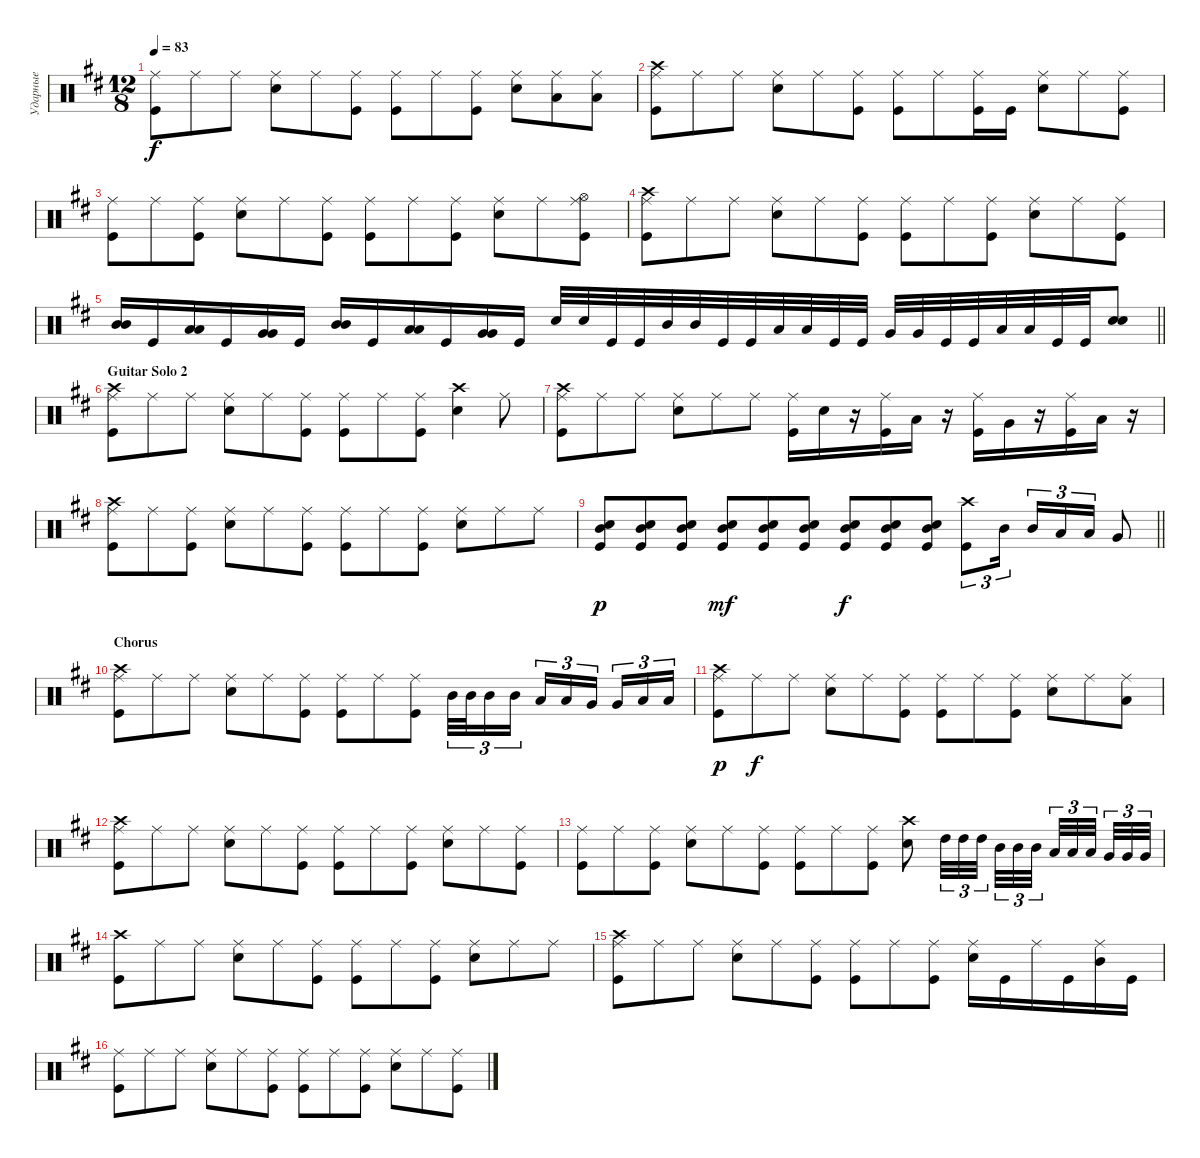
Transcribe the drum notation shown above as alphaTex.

\track ("Ударные" "Ударные") {instrument percussion}
\staff {score}
\articulation defaults
\ts (12 8)
\tempo 83
\clef neutral
\ks bminor
("Kick (hit)" "Ride (middle)").8{dy f} "Ride (middle)".8 "Ride (middle)".8 ("Ride (middle)" "Snare (hit) 2").8 "Ride (middle)".8 ("Ride (middle)" "Kick (hit)").8 ("Kick (hit)" "Ride (middle)").8 "Ride (middle)".8 ("Ride (middle)" "Kick (hit)").8 ("Ride (middle)" "Snare (hit) 2").8 ("Ride (middle)" "Low Floor Tom (hit)").8 ("Ride (middle)" "Low Floor Tom (hit)").8 |
("Kick (hit)" "Ride (middle)" "Crash high (hit)").8 "Ride (middle)".8 "Ride (middle)".8 ("Ride (middle)" "Snare (hit) 2").8 "Ride (middle)".8 ("Ride (middle)" "Kick (hit)").8 ("Kick (hit)" "Ride (middle)").8 "Ride (middle)".8 ("Ride (middle)" "Kick (hit)").16 "Kick (hit)".16 ("Ride (middle)" "Snare (hit) 2").8 "Ride (middle)".8 ("Ride (middle)" "Kick (hit)").8 |
("Kick (hit)" "Ride (middle)").8 "Ride (middle)".8 ("Ride (middle)" "Kick (hit)").8 ("Ride (middle)" "Snare (hit) 2").8 "Ride (middle)".8 ("Ride (middle)" "Kick (hit)").8 ("Kick (hit)" "Ride (middle)").8 "Ride (middle)".8 ("Ride (middle)" "Kick (hit)").8 ("Ride (middle)" "Snare (hit) 2").8 "Ride (middle)".8 ("Ride (middle)" "Kick (hit)" "Hi-Hat (open)").8 |
("Kick (hit)" "Ride (middle)" "Crash high (hit)").8 "Ride (middle)".8 "Ride (middle)".8 ("Ride (middle)" "Snare (hit) 2").8 "Ride (middle)".8 ("Ride (middle)" "Kick (hit)").8 ("Kick (hit)" "Ride (middle)").8 "Ride (middle)".8 ("Ride (middle)" "Kick (hit)").8 ("Ride (middle)" "Snare (hit) 2").8 "Ride (middle)".8 ("Ride (middle)" "Kick (hit)").8 |
\barLineRight lightlight
("Mid Tom (hit)" "Mid Tom (hit)").16{bd 240} "Kick (hit)".16 ("Low Tom (hit)" "Low Tom (hit)").16{bd 240} "Kick (hit)".16 ("Very Low Tom (hit)" "Very Low Tom (hit)").16{bu 240} "Kick (hit)".16 ("Mid Tom (hit)" "Mid Tom (hit)").16{bd 240} "Kick (hit)".16 ("Low Tom (hit)" "Low Tom (hit)").16{bd 240} "Kick (hit)".16 ("Very Low Tom (hit)" "Very Low Tom (hit)").16{bu 240} "Kick (hit)".16 "Snare (hit) 2".32 "Snare (hit) 2".32 "Kick (hit)".32 "Kick (hit)".32 "Mid Tom (hit)".32 "Mid Tom (hit)".32 "Kick (hit)".32 "Kick (hit)".32 "Low Tom (hit)".32 "Low Tom (hit)".32 "Kick (hit)".32 "Kick (hit)".32 "Very Low Tom (hit)".32 "Very Low Tom (hit)".32 "Kick (hit)".32 "Kick (hit)".32 "Low Floor Tom (hit)".32 "Low Floor Tom (hit)".32 "Kick (hit)".32 "Kick (hit)".32 ("Snare (hit) 2" "Snare (hit) 2").8{bd 240} |
\section ("" "Guitar Solo 2")
("Kick (hit)" "Ride (middle)" "Crash high (hit)").8 "Ride (middle)".8 "Ride (middle)".8 ("Ride (middle)" "Snare (hit) 2").8 "Ride (middle)".8 ("Ride (middle)" "Kick (hit)").8 ("Kick (hit)" "Ride (middle)").8 "Ride (middle)".8 ("Ride (middle)" "Kick (hit)").8 ("Crash high (hit)" "Snare (hit) 2").4 "Ride (middle)".8 |
("Kick (hit)" "Ride (middle)" "Crash high (hit)").8 "Ride (middle)".8 "Ride (middle)".8 ("Ride (middle)" "Snare (hit) 2").8 "Ride (middle)".8 "Ride (middle)".8 ("Kick (hit)" "Ride (middle)").16 "Snare (hit) 2".16 r.16 ("Kick (hit)" "Ride (middle)").16 "Low Tom (hit)".16 r.16 ("Kick (hit)" "Ride (middle)").16 "Very Low Tom (hit)".16 r.16 ("Kick (hit)" "Ride (middle)").16 "Low Floor Tom (hit)".16 r.16 |
("Kick (hit)" "Ride (middle)" "Crash high (hit)").8 "Ride (middle)".8 ("Ride (middle)" "Kick (hit)").8 ("Ride (middle)" "Snare (hit) 2").8 "Ride (middle)".8 ("Ride (middle)" "Kick (hit)").8 ("Kick (hit)" "Ride (middle)").8 "Ride (middle)".8 ("Ride (middle)" "Kick (hit)").8 ("Ride (middle)" "Snare (hit) 2").8 "Ride (middle)".8 "Ride (middle)".8 |
\barLineRight lightlight
("Kick (hit)" "Snare (hit) 2" "Mid Tom (hit)").8{bd 60 dy p} ("Kick (hit)" "Snare (hit) 2" "Mid Tom (hit)").8{bd 60} ("Kick (hit)" "Snare (hit) 2" "Mid Tom (hit)").8{bd 60} ("Kick (hit)" "Snare (hit) 2" "Mid Tom (hit)").8{bd 60 dy mf} ("Kick (hit)" "Snare (hit) 2" "Mid Tom (hit)").8{bd 60} ("Kick (hit)" "Snare (hit) 2" "Mid Tom (hit)").8{bd 60} ("Kick (hit)" "Snare (hit) 2" "Mid Tom (hit)").8{bd 60 dy f} ("Kick (hit)" "Snare (hit) 2" "Mid Tom (hit)").8{bd 60} ("Kick (hit)" "Snare (hit) 2" "Mid Tom (hit)").8{bd 60} ("Kick (hit)" "Crash high (hit)").8{tu (3 2)} "Mid Tom (hit)".16{tu (3 2) beam splitsecondary} "Mid Tom (hit)".16{tu (3 2)} "Low Tom (hit)".16{tu (3 2)} "Low Tom (hit)".16{tu (3 2)} "Very Low Tom (hit)".8 |
\section ("" "Chorus")
("Kick (hit)" "Ride (middle)" "Crash high (hit)").8 "Ride (middle)".8 "Ride (middle)".8 ("Ride (middle)" "Snare (hit) 2").8 "Ride (middle)".8 ("Ride (middle)" "Kick (hit)").8 ("Kick (hit)" "Ride (middle)").8 "Ride (middle)".8 ("Kick (hit)" "Ride (middle)").8 "Mid Tom (hit)".32{tu (3 2)} "Mid Tom (hit)".32{tu (3 2)} "Mid Tom (hit)".16{tu (3 2)} "Mid Tom (hit)".16{tu (3 2) beam splitsecondary} "Low Tom (hit)".16{tu (3 2)} "Low Tom (hit)".16{tu (3 2)} "Very Low Tom (hit)".16{tu (3 2) beam splitsecondary} "Very Low Tom (hit)".16{tu (3 2)} "Low Floor Tom (hit)".16{tu (3 2)} "Low Floor Tom (hit)".16{tu (3 2)} |
("Kick (hit)" "Ride (middle)" "Crash high (hit)").8{dy p} "Ride (middle)".8{dy f} "Ride (middle)".8 ("Ride (middle)" "Snare (hit) 2").8 "Ride (middle)".8 ("Ride (middle)" "Kick (hit)").8 ("Kick (hit)" "Ride (middle)").8 "Ride (middle)".8 ("Ride (middle)" "Kick (hit)").8 ("Ride (middle)" "Snare (hit) 2").8 "Ride (middle)".8 ("Low Tom (hit)" "Ride (middle)").8 |
("Kick (hit)" "Ride (middle)" "Crash high (hit)").8 "Ride (middle)".8 "Ride (middle)".8 ("Ride (middle)" "Snare (hit) 2").8 "Ride (middle)".8 ("Ride (middle)" "Kick (hit)").8 ("Kick (hit)" "Ride (middle)").8 "Ride (middle)".8 ("Ride (middle)" "Kick (hit)").8 ("Ride (middle)" "Snare (hit) 2").8 "Ride (middle)".8 ("Ride (middle)" "Kick (hit)").8 |
("Kick (hit)" "Ride (middle)").8 "Ride (middle)".8 ("Ride (middle)" "Kick (hit)").8 ("Ride (middle)" "Snare (hit) 2").8 "Ride (middle)".8 ("Ride (middle)" "Kick (hit)").8 ("Kick (hit)" "Ride (middle)").8 "Ride (middle)".8 ("Ride (middle)" "Kick (hit)").8 ("Crash high (hit)" "Snare (hit) 2").8 "High Tom (hit)".32{tu (3 2)} "High Tom (hit)".32{tu (3 2)} "High Tom (hit)".32{tu (3 2) beam splitsecondary} "Mid Tom (hit)".32{tu (3 2)} "Mid Tom (hit)".32{tu (3 2)} "Mid Tom (hit)".32{tu (3 2) beam splitsecondary} "Low Tom (hit)".32{tu (3 2)} "Low Tom (hit)".32{tu (3 2)} "Low Tom (hit)".32{tu (3 2) beam splitsecondary} "Very Low Tom (hit)".32{tu (3 2)} "Very Low Tom (hit)".32{tu (3 2)} "Very Low Tom (hit)".32{tu (3 2)} |
("Kick (hit)" "Crash high (hit)").8 "Ride (middle)".8 "Ride (middle)".8 ("Ride (middle)" "Snare (hit) 2").8 "Ride (middle)".8 ("Ride (middle)" "Kick (hit)").8 ("Kick (hit)" "Ride (middle)").8 "Ride (middle)".8 ("Ride (middle)" "Kick (hit)").8 ("Ride (middle)" "Snare (hit) 2").8 "Ride (middle)".8 "Ride (middle)".8 |
("Kick (hit)" "Ride (middle)" "Crash high (hit)").8 "Ride (middle)".8 "Ride (middle)".8 ("Ride (middle)" "Snare (hit) 2").8 "Ride (middle)".8 ("Ride (middle)" "Kick (hit)").8 ("Kick (hit)" "Ride (middle)").8 "Ride (middle)".8 ("Ride (middle)" "Kick (hit)").8 ("Ride (middle)" "Snare (hit) 2").16 "Kick (hit)".16 "Ride (middle)".16 "Kick (hit)".16 ("Ride (middle)" "Mid Tom (hit)").16 "Kick (hit)".16 |
("Kick (hit)" "Ride (middle)").8 "Ride (middle)".8 "Ride (middle)".8 ("Ride (middle)" "Snare (hit) 2").8 "Ride (middle)".8 ("Ride (middle)" "Kick (hit)").8 ("Kick (hit)" "Ride (middle)").8 "Ride (middle)".8 ("Ride (middle)" "Kick (hit)").8 ("Ride (middle)" "Snare (hit) 2").8 "Ride (middle)".8 ("Ride (middle)" "Kick (hit)").8
